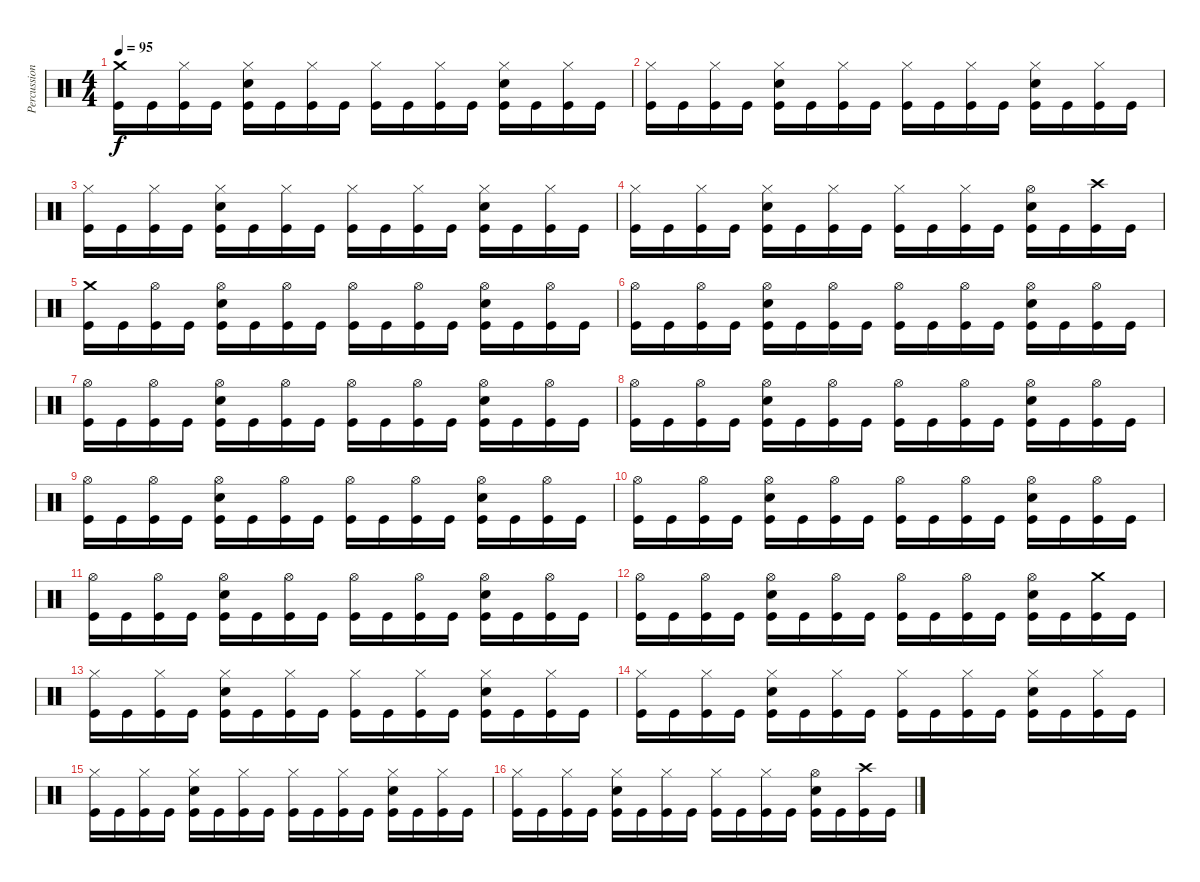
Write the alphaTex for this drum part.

\track ("Percussion" "Percussion") {instrument percussion}
\staff {score}
\articulation defaults
\ts (4 4)
\tempo 95
\clef neutral
\ks c
("Crash medium (hit)" "Kick (hit)").16{dy f} "Kick (hit)".16 ("Hi-Hat (closed)" "Kick (hit)").16 "Kick (hit)".16 ("Hi-Hat (closed)" "Electric Snare (hit)" "Kick (hit)").16 "Kick (hit)".16 ("Hi-Hat (closed)" "Kick (hit)").16 "Kick (hit)".16 ("Hi-Hat (closed)" "Kick (hit)").16 "Kick (hit)".16 ("Hi-Hat (closed)" "Kick (hit)").16 "Kick (hit)".16 ("Hi-Hat (closed)" "Electric Snare (hit)" "Kick (hit)").16 "Kick (hit)".16 ("Hi-Hat (closed)" "Kick (hit)").16 "Kick (hit)".16 |
("Hi-Hat (closed)" "Kick (hit)").16 "Kick (hit)".16 ("Hi-Hat (closed)" "Kick (hit)").16 "Kick (hit)".16 ("Hi-Hat (closed)" "Electric Snare (hit)" "Kick (hit)").16 "Kick (hit)".16 ("Hi-Hat (closed)" "Kick (hit)").16 "Kick (hit)".16 ("Hi-Hat (closed)" "Kick (hit)").16 "Kick (hit)".16 ("Hi-Hat (closed)" "Kick (hit)").16 "Kick (hit)".16 ("Hi-Hat (closed)" "Electric Snare (hit)" "Kick (hit)").16 "Kick (hit)".16 ("Hi-Hat (closed)" "Kick (hit)").16 "Kick (hit)".16 |
("Hi-Hat (closed)" "Kick (hit)").16 "Kick (hit)".16 ("Hi-Hat (closed)" "Kick (hit)").16 "Kick (hit)".16 ("Hi-Hat (closed)" "Electric Snare (hit)" "Kick (hit)").16 "Kick (hit)".16 ("Hi-Hat (closed)" "Kick (hit)").16 "Kick (hit)".16 ("Hi-Hat (closed)" "Kick (hit)").16 "Kick (hit)".16 ("Hi-Hat (closed)" "Kick (hit)").16 "Kick (hit)".16 ("Hi-Hat (closed)" "Electric Snare (hit)" "Kick (hit)").16 "Kick (hit)".16 ("Hi-Hat (closed)" "Kick (hit)").16 "Kick (hit)".16 |
("Hi-Hat (closed)" "Kick (hit)").16 "Kick (hit)".16 ("Hi-Hat (closed)" "Kick (hit)").16 "Kick (hit)".16 ("Hi-Hat (closed)" "Electric Snare (hit)" "Kick (hit)").16 "Kick (hit)".16 ("Hi-Hat (closed)" "Kick (hit)").16 "Kick (hit)".16 ("Hi-Hat (closed)" "Kick (hit)").16 "Kick (hit)".16 ("Hi-Hat (closed)" "Kick (hit)").16 "Kick (hit)".16 ("Hi-Hat (open)" "Electric Snare (hit)" "Kick (hit)").16 "Kick (hit)".16 ("Crash high (hit)" "Kick (hit)").16 "Kick (hit)".16 |
("Crash medium (hit)" "Kick (hit)").16 "Kick (hit)".16 ("Hi-Hat (open)" "Kick (hit)").16 "Kick (hit)".16 ("Hi-Hat (open)" "Electric Snare (hit)" "Kick (hit)").16 "Kick (hit)".16 ("Hi-Hat (open)" "Kick (hit)").16 "Kick (hit)".16 ("Hi-Hat (open)" "Kick (hit)").16 "Kick (hit)".16 ("Hi-Hat (open)" "Kick (hit)").16 "Kick (hit)".16 ("Hi-Hat (open)" "Electric Snare (hit)" "Kick (hit)").16 "Kick (hit)".16 ("Hi-Hat (open)" "Kick (hit)").16 "Kick (hit)".16 |
("Hi-Hat (open)" "Kick (hit)").16 "Kick (hit)".16 ("Hi-Hat (open)" "Kick (hit)").16 "Kick (hit)".16 ("Hi-Hat (open)" "Electric Snare (hit)" "Kick (hit)").16 "Kick (hit)".16 ("Hi-Hat (open)" "Kick (hit)").16 "Kick (hit)".16 ("Hi-Hat (open)" "Kick (hit)").16 "Kick (hit)".16 ("Hi-Hat (open)" "Kick (hit)").16 "Kick (hit)".16 ("Hi-Hat (open)" "Electric Snare (hit)" "Kick (hit)").16 "Kick (hit)".16 ("Hi-Hat (open)" "Kick (hit)").16 "Kick (hit)".16 |
("Hi-Hat (open)" "Kick (hit)").16 "Kick (hit)".16 ("Hi-Hat (open)" "Kick (hit)").16 "Kick (hit)".16 ("Hi-Hat (open)" "Electric Snare (hit)" "Kick (hit)").16 "Kick (hit)".16 ("Hi-Hat (open)" "Kick (hit)").16 "Kick (hit)".16 ("Hi-Hat (open)" "Kick (hit)").16 "Kick (hit)".16 ("Hi-Hat (open)" "Kick (hit)").16 "Kick (hit)".16 ("Hi-Hat (open)" "Electric Snare (hit)" "Kick (hit)").16 "Kick (hit)".16 ("Hi-Hat (open)" "Kick (hit)").16 "Kick (hit)".16 |
("Hi-Hat (open)" "Kick (hit)").16 "Kick (hit)".16 ("Hi-Hat (open)" "Kick (hit)").16 "Kick (hit)".16 ("Hi-Hat (open)" "Electric Snare (hit)" "Kick (hit)").16 "Kick (hit)".16 ("Hi-Hat (open)" "Kick (hit)").16 "Kick (hit)".16 ("Hi-Hat (open)" "Kick (hit)").16 "Kick (hit)".16 ("Hi-Hat (open)" "Kick (hit)").16 "Kick (hit)".16 ("Hi-Hat (open)" "Electric Snare (hit)" "Kick (hit)").16 "Kick (hit)".16 ("Hi-Hat (open)" "Kick (hit)").16 "Kick (hit)".16 |
("Hi-Hat (open)" "Kick (hit)").16 "Kick (hit)".16 ("Hi-Hat (open)" "Kick (hit)").16 "Kick (hit)".16 ("Hi-Hat (open)" "Electric Snare (hit)" "Kick (hit)").16 "Kick (hit)".16 ("Hi-Hat (open)" "Kick (hit)").16 "Kick (hit)".16 ("Hi-Hat (open)" "Kick (hit)").16 "Kick (hit)".16 ("Hi-Hat (open)" "Kick (hit)").16 "Kick (hit)".16 ("Hi-Hat (open)" "Electric Snare (hit)" "Kick (hit)").16 "Kick (hit)".16 ("Hi-Hat (open)" "Kick (hit)").16 "Kick (hit)".16 |
("Hi-Hat (open)" "Kick (hit)").16 "Kick (hit)".16 ("Hi-Hat (open)" "Kick (hit)").16 "Kick (hit)".16 ("Hi-Hat (open)" "Electric Snare (hit)" "Kick (hit)").16 "Kick (hit)".16 ("Hi-Hat (open)" "Kick (hit)").16 "Kick (hit)".16 ("Hi-Hat (open)" "Kick (hit)").16 "Kick (hit)".16 ("Hi-Hat (open)" "Kick (hit)").16 "Kick (hit)".16 ("Hi-Hat (open)" "Electric Snare (hit)" "Kick (hit)").16 "Kick (hit)".16 ("Hi-Hat (open)" "Kick (hit)").16 "Kick (hit)".16 |
("Hi-Hat (open)" "Kick (hit)").16 "Kick (hit)".16 ("Hi-Hat (open)" "Kick (hit)").16 "Kick (hit)".16 ("Hi-Hat (open)" "Electric Snare (hit)" "Kick (hit)").16 "Kick (hit)".16 ("Hi-Hat (open)" "Kick (hit)").16 "Kick (hit)".16 ("Hi-Hat (open)" "Kick (hit)").16 "Kick (hit)".16 ("Hi-Hat (open)" "Kick (hit)").16 "Kick (hit)".16 ("Hi-Hat (open)" "Electric Snare (hit)" "Kick (hit)").16 "Kick (hit)".16 ("Hi-Hat (open)" "Kick (hit)").16 "Kick (hit)".16 |
("Hi-Hat (open)" "Kick (hit)").16 "Kick (hit)".16 ("Hi-Hat (open)" "Kick (hit)").16 "Kick (hit)".16 ("Hi-Hat (open)" "Electric Snare (hit)" "Kick (hit)").16 "Kick (hit)".16 ("Hi-Hat (open)" "Kick (hit)").16 "Kick (hit)".16 ("Hi-Hat (open)" "Kick (hit)").16 "Kick (hit)".16 ("Hi-Hat (open)" "Kick (hit)").16 "Kick (hit)".16 ("Hi-Hat (open)" "Electric Snare (hit)" "Kick (hit)").16 "Kick (hit)".16 ("Crash medium (hit)" "Kick (hit)").16 "Kick (hit)".16 |
("Hi-Hat (closed)" "Kick (hit)").16 "Kick (hit)".16 ("Hi-Hat (closed)" "Kick (hit)").16 "Kick (hit)".16 ("Hi-Hat (closed)" "Electric Snare (hit)" "Kick (hit)").16 "Kick (hit)".16 ("Hi-Hat (closed)" "Kick (hit)").16 "Kick (hit)".16 ("Hi-Hat (closed)" "Kick (hit)").16 "Kick (hit)".16 ("Hi-Hat (closed)" "Kick (hit)").16 "Kick (hit)".16 ("Hi-Hat (closed)" "Electric Snare (hit)" "Kick (hit)").16 "Kick (hit)".16 ("Hi-Hat (closed)" "Kick (hit)").16 "Kick (hit)".16 |
("Hi-Hat (closed)" "Kick (hit)").16 "Kick (hit)".16 ("Hi-Hat (closed)" "Kick (hit)").16 "Kick (hit)".16 ("Hi-Hat (closed)" "Electric Snare (hit)" "Kick (hit)").16 "Kick (hit)".16 ("Hi-Hat (closed)" "Kick (hit)").16 "Kick (hit)".16 ("Hi-Hat (closed)" "Kick (hit)").16 "Kick (hit)".16 ("Hi-Hat (closed)" "Kick (hit)").16 "Kick (hit)".16 ("Hi-Hat (closed)" "Electric Snare (hit)" "Kick (hit)").16 "Kick (hit)".16 ("Hi-Hat (closed)" "Kick (hit)").16 "Kick (hit)".16 |
("Hi-Hat (closed)" "Kick (hit)").16 "Kick (hit)".16 ("Hi-Hat (closed)" "Kick (hit)").16 "Kick (hit)".16 ("Hi-Hat (closed)" "Electric Snare (hit)" "Kick (hit)").16 "Kick (hit)".16 ("Hi-Hat (closed)" "Kick (hit)").16 "Kick (hit)".16 ("Hi-Hat (closed)" "Kick (hit)").16 "Kick (hit)".16 ("Hi-Hat (closed)" "Kick (hit)").16 "Kick (hit)".16 ("Hi-Hat (closed)" "Electric Snare (hit)" "Kick (hit)").16 "Kick (hit)".16 ("Hi-Hat (closed)" "Kick (hit)").16 "Kick (hit)".16 |
("Hi-Hat (closed)" "Kick (hit)").16 "Kick (hit)".16 ("Hi-Hat (closed)" "Kick (hit)").16 "Kick (hit)".16 ("Hi-Hat (closed)" "Electric Snare (hit)" "Kick (hit)").16 "Kick (hit)".16 ("Hi-Hat (closed)" "Kick (hit)").16 "Kick (hit)".16 ("Hi-Hat (closed)" "Kick (hit)").16 "Kick (hit)".16 ("Hi-Hat (closed)" "Kick (hit)").16 "Kick (hit)".16 ("Hi-Hat (open)" "Electric Snare (hit)" "Kick (hit)").16 "Kick (hit)".16 ("Crash high (hit)" "Kick (hit)").16 "Kick (hit)".16
